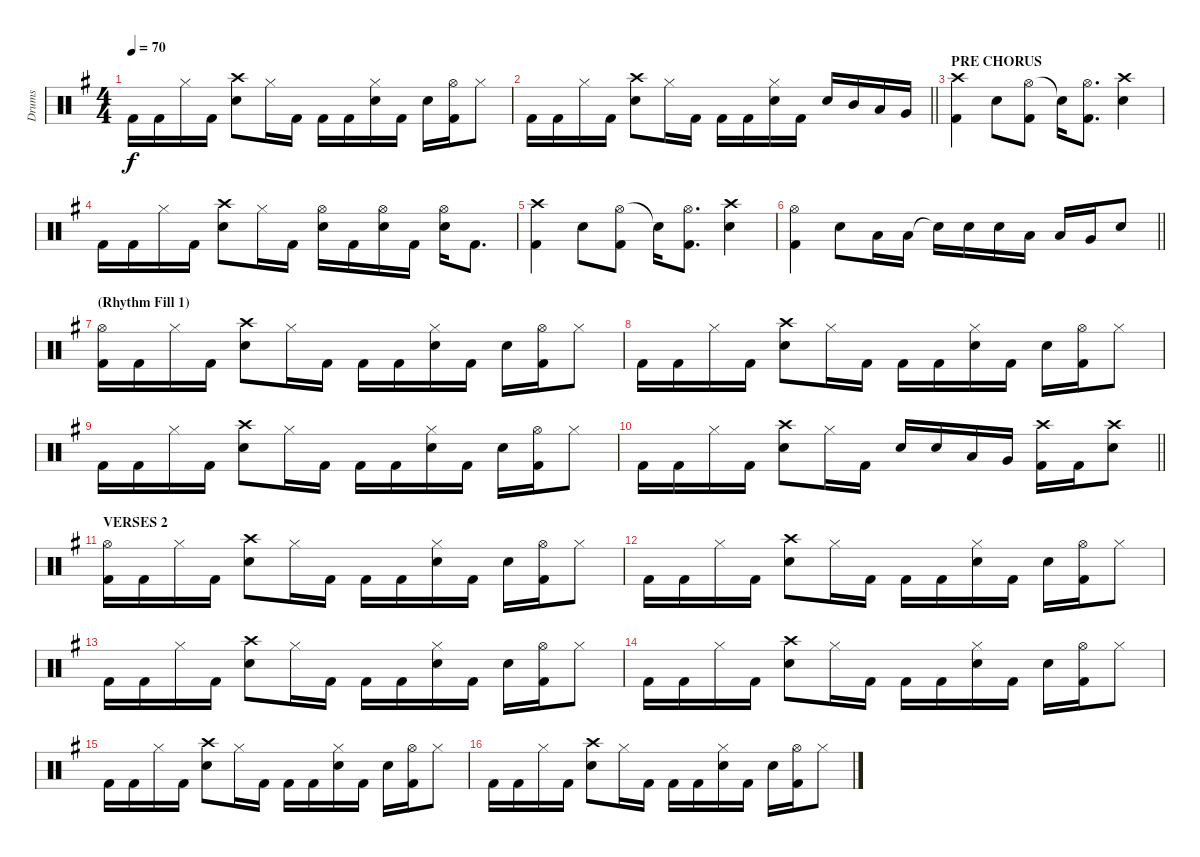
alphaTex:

\track ("Drums" "Drums") {instrument percussion}
\staff {score}
\articulation defaults
\ts (4 4)
\tempo 70
\clef neutral
\ks eminor "Kick (hit) 2".16{dy f} "Kick (hit) 2".16 "Hi-Hat (closed)".16 "Kick (hit) 2".16
("Crash high (hit)" "Electric Snare (hit)").8 "Hi-Hat (closed)".16 "Kick (hit) 2".16 "Kick (hit) 2".16 "Kick (hit) 2".16 ("Hi-Hat (closed)" "Electric Snare (hit)").16 "Kick (hit) 2".16 "Electric Snare (hit)".16 ("Hi-Hat (open)" "Kick (hit) 2").16 "Hi-Hat (closed)".8 |
\barLineRight lightlight "Kick (hit) 2".16 "Kick (hit) 2".16 "Hi-Hat (closed)".16 "Kick (hit) 2".16
("Crash high (hit)" "Electric Snare (hit)").8 "Hi-Hat (closed)".16 "Kick (hit) 2".16 "Kick (hit) 2".16 "Kick (hit) 2".16 ("Hi-Hat (closed)" "Electric Snare (hit)").16 "Kick (hit) 2".16 "Electric Snare (hit)".16 "Mid Tom (hit)".16 "Low Tom (hit)".16 "Very Low Tom (hit)".16 |
\section ("" "PRE CHORUS")
("Crash high (hit)" "Kick (hit) 2").4 "Electric Snare (hit)".8 ("Hi-Hat (open)" "Kick (hit) 2").8 "Snare (hit)"{t}.16 ("Hi-Hat (open)" "Kick (hit) 2").8{d} ("Crash high (hit)" "Electric Snare (hit)").4 |
"Kick (hit) 2".16 "Kick (hit) 2".16 "Hi-Hat (closed)".16 "Kick (hit) 2".16 ("Crash high (hit)" "Electric Snare (hit)").8 "Hi-Hat (closed)".16 "Kick (hit) 2".16 ("Hi-Hat (open)" "Electric Snare (hit)").16 "Kick (hit) 2".16 ("Hi-Hat (open)" "Electric Snare (hit)").16 "Kick (hit) 2".16 ("Hi-Hat (open)" "Electric Snare (hit)").16 "Kick (hit) 2".8{d} |
("Crash high (hit)" "Kick (hit) 2").4 "Electric Snare (hit)".8 ("Hi-Hat (open)" "Kick (hit) 2").8 "Snare (hit)"{t}.16 ("Hi-Hat (open)" "Kick (hit) 2").8{d} ("Crash high (hit)" "Electric Snare (hit)").4 |
\barLineRight lightlight
("Hi-Hat (open)" "Kick (hit) 2").4 "Electric Snare (hit)".8 "Low Tom (hit)".16 "Low Tom (hit)".16 "Snare (hit)"{t}.16 "Electric Snare (hit)".16 "Electric Snare (hit)".16 "Low Tom (hit)".16 "Low Tom (hit)".16 "Very Low Tom (hit)".16 "Electric Snare (hit)".8 |
\section ("" "(Rhythm Fill 1)")
("Hi-Hat (open)" "Kick (hit) 2").16 "Kick (hit) 2".16 "Hi-Hat (closed)".16 "Kick (hit) 2".16 ("Crash high (hit)" "Electric Snare (hit)").8 "Hi-Hat (closed)".16 "Kick (hit) 2".16 "Kick (hit) 2".16 "Kick (hit) 2".16 ("Hi-Hat (closed)" "Electric Snare (hit)").16 "Kick (hit) 2".16 "Electric Snare (hit)".16 ("Hi-Hat (open)" "Kick (hit) 2").16 "Hi-Hat (closed)".8 |
"Kick (hit) 2".16 "Kick (hit) 2".16 "Hi-Hat (closed)".16 "Kick (hit) 2".16 ("Crash high (hit)" "Electric Snare (hit)").8 "Hi-Hat (closed)".16 "Kick (hit) 2".16 "Kick (hit) 2".16 "Kick (hit) 2".16 ("Hi-Hat (closed)" "Electric Snare (hit)").16 "Kick (hit) 2".16 "Electric Snare (hit)".16 ("Hi-Hat (open)" "Kick (hit) 2").16 "Hi-Hat (closed)".8 |
"Kick (hit) 2".16 "Kick (hit) 2".16 "Hi-Hat (closed)".16 "Kick (hit) 2".16 ("Crash high (hit)" "Electric Snare (hit)").8 "Hi-Hat (closed)".16 "Kick (hit) 2".16 "Kick (hit) 2".16 "Kick (hit) 2".16 ("Hi-Hat (closed)" "Electric Snare (hit)").16 "Kick (hit) 2".16 "Electric Snare (hit)".16 ("Hi-Hat (open)" "Kick (hit) 2").16 "Hi-Hat (closed)".8 |
\barLineRight lightlight "Kick (hit) 2".16 "Kick (hit) 2".16 "Hi-Hat (closed)".16 "Kick (hit) 2".16
("Crash high (hit)" "Electric Snare (hit)").8 "Hi-Hat (closed)".16 "Kick (hit) 2".16 "Electric Snare (hit)".16 "Electric Snare (hit)".16 "Low Tom (hit)".16 "Very Low Tom (hit)".16 ("Crash high (hit)" "Kick (hit) 2").16 "Kick (hit) 2".16 ("Crash high (hit)" "Electric Snare (hit)").8 |
\section ("" "VERSES 2")
("Hi-Hat (open)" "Kick (hit) 2").16 "Kick (hit) 2".16 "Hi-Hat (closed)".16 "Kick (hit) 2".16 ("Crash high (hit)" "Electric Snare (hit)").8 "Hi-Hat (closed)".16 "Kick (hit) 2".16 "Kick (hit) 2".16 "Kick (hit) 2".16 ("Hi-Hat (closed)" "Electric Snare (hit)").16 "Kick (hit) 2".16 "Electric Snare (hit)".16 ("Hi-Hat (open)" "Kick (hit) 2").16 "Hi-Hat (closed)".8 |
"Kick (hit) 2".16 "Kick (hit) 2".16 "Hi-Hat (closed)".16 "Kick (hit) 2".16 ("Crash high (hit)" "Electric Snare (hit)").8 "Hi-Hat (closed)".16 "Kick (hit) 2".16 "Kick (hit) 2".16 "Kick (hit) 2".16 ("Hi-Hat (closed)" "Electric Snare (hit)").16 "Kick (hit) 2".16 "Electric Snare (hit)".16 ("Hi-Hat (open)" "Kick (hit) 2").16 "Hi-Hat (closed)".8 |
"Kick (hit) 2".16 "Kick (hit) 2".16 "Hi-Hat (closed)".16 "Kick (hit) 2".16 ("Crash high (hit)" "Electric Snare (hit)").8 "Hi-Hat (closed)".16 "Kick (hit) 2".16 "Kick (hit) 2".16 "Kick (hit) 2".16 ("Hi-Hat (closed)" "Electric Snare (hit)").16 "Kick (hit) 2".16 "Electric Snare (hit)".16 ("Hi-Hat (open)" "Kick (hit) 2").16 "Hi-Hat (closed)".8 |
"Kick (hit) 2".16 "Kick (hit) 2".16 "Hi-Hat (closed)".16 "Kick (hit) 2".16 ("Crash high (hit)" "Electric Snare (hit)").8 "Hi-Hat (closed)".16 "Kick (hit) 2".16 "Kick (hit) 2".16 "Kick (hit) 2".16 ("Hi-Hat (closed)" "Electric Snare (hit)").16 "Kick (hit) 2".16 "Electric Snare (hit)".16 ("Hi-Hat (open)" "Kick (hit) 2").16 "Hi-Hat (closed)".8 |
"Kick (hit) 2".16 "Kick (hit) 2".16 "Hi-Hat (closed)".16 "Kick (hit) 2".16 ("Crash high (hit)" "Electric Snare (hit)").8 "Hi-Hat (closed)".16 "Kick (hit) 2".16 "Kick (hit) 2".16 "Kick (hit) 2".16 ("Hi-Hat (closed)" "Electric Snare (hit)").16 "Kick (hit) 2".16 "Electric Snare (hit)".16 ("Hi-Hat (open)" "Kick (hit) 2").16 "Hi-Hat (closed)".8 |
"Kick (hit) 2".16 "Kick (hit) 2".16 "Hi-Hat (closed)".16 "Kick (hit) 2".16 ("Crash high (hit)" "Electric Snare (hit)").8 "Hi-Hat (closed)".16 "Kick (hit) 2".16 "Kick (hit) 2".16 "Kick (hit) 2".16 ("Hi-Hat (closed)" "Electric Snare (hit)").16 "Kick (hit) 2".16 "Electric Snare (hit)".16 ("Hi-Hat (open)" "Kick (hit) 2").16 "Hi-Hat (closed)".8
